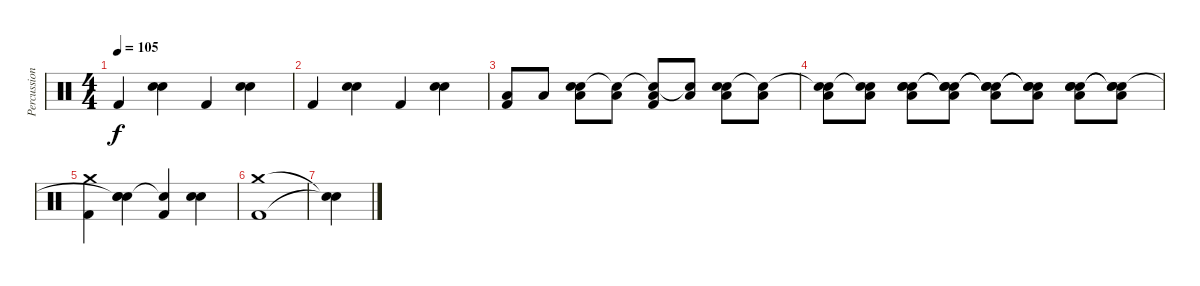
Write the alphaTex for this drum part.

\track ("Percussion" "Percussion") {instrument percussion}
\staff {score}
\articulation defaults
\ts (4 4)
\tempo 105
\clef neutral
\ks c "Kick (hit) 2".4{dy f}
("Snare (hit) 2" "Hand Clap (hit)").4 "Kick (hit) 2".4 ("Snare (hit) 2" "Hand Clap (hit)").4 |
"Kick (hit) 2".4 ("Snare (hit) 2" "Hand Clap (hit)").4 "Kick (hit) 2".4 ("Snare (hit) 2" "Hand Clap (hit)").4 |
("Low Floor Tom (hit)" "Kick (hit) 2").8 "Low Floor Tom (hit)".8 ("Low Floor Tom (hit)" "Hand Clap (hit)" "Snare (hit) 2").8 ("Low Floor Tom (hit)" "Snare (hit)"{t}).8 ("Low Floor Tom (hit)" "Hand Clap (hit)"{t} "Kick (hit) 2").8 ("Low Floor Tom (hit)" "Snare (hit)"{t}).8 ("Low Floor Tom (hit)" "Hand Clap (hit)" "Snare (hit) 2").8 ("Low Floor Tom (hit)" "Snare (hit)"{t}).8 |
("Low Floor Tom (hit)" "Snare (hit)"{t} "Snare (hit) 2").8 ("Low Floor Tom (hit)" "Snare (hit)"{t} "Snare (hit) 2").8 ("Low Floor Tom (hit)" "Hand Clap (hit)" "Hand Clap (hit)" "Snare (hit) 2").8 ("Low Floor Tom (hit)" "Snare (hit)"{t} "Snare (hit)"{t} "Snare (hit) 2").8 ("Low Floor Tom (hit)" "Snare (hit)"{t} "Snare (hit)"{t} "Snare (hit) 2").8 ("Low Floor Tom (hit)" "Snare (hit)"{t} "Snare (hit)"{t} "Snare (hit) 2").8 ("Low Floor Tom (hit)" "Hand Clap (hit)" "Hand Clap (hit)" "Snare (hit) 2").8 ("Low Floor Tom (hit)" "Snare (hit)"{t} "Snare (hit)"{t} "Snare (hit) 2").8 |
("Kick (hit) 2" "Crash medium (hit)").4 ("Snare (hit) 2" "Hand Clap (hit)" "Snare (hit)"{t}).4 ("Kick (hit) 2" "Snare (hit)"{t}).4 ("Snare (hit) 2" "Hand Clap (hit)").4 |
("Kick (hit) 2" "Crash medium (hit)").1 |
("Snare (hit)"{t} "Snare (hit)"{t}).4
